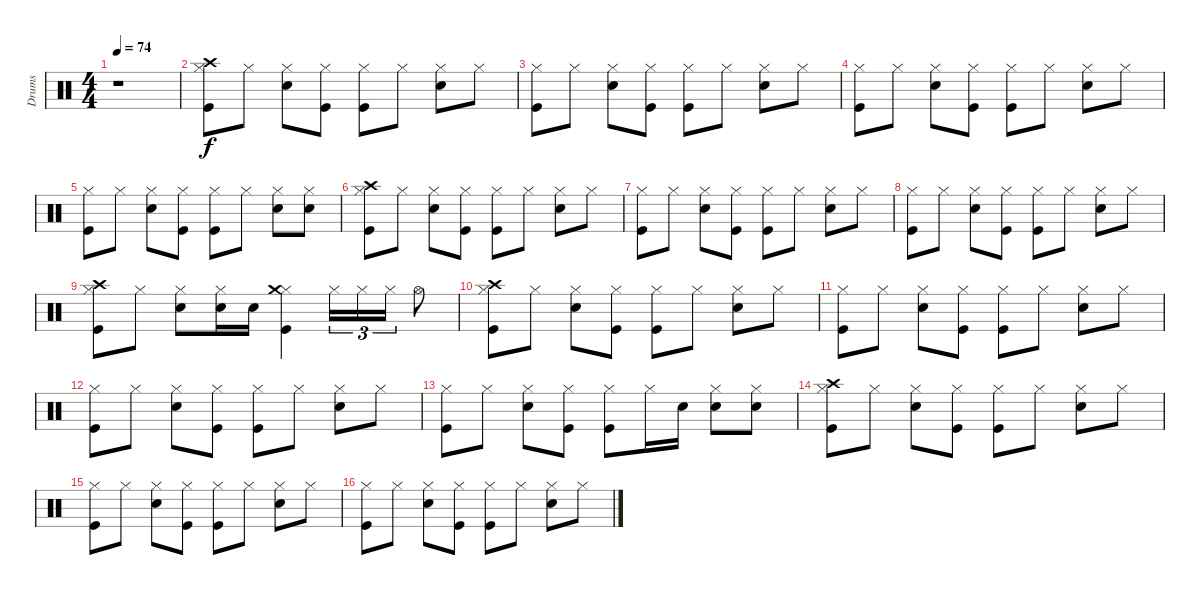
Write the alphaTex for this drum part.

\track ("Drums" "Drums") {instrument percussion}
\staff {score}
\articulation defaults
\ts (4 4)
\tempo 74
\clef neutral
\ks c
r.1{dy f} |
("Kick (hit)" "Hi-Hat (closed)" "Crash high (hit)").8 "Hi-Hat (closed)".8 ("Electric Snare (hit)" "Hi-Hat (closed)").8 ("Kick (hit)" "Hi-Hat (closed)").8 ("Kick (hit)" "Hi-Hat (closed)").8 "Hi-Hat (closed)".8 ("Electric Snare (hit)" "Hi-Hat (closed)").8 "Hi-Hat (closed)".8 |
("Kick (hit)" "Hi-Hat (closed)").8 "Hi-Hat (closed)".8 ("Electric Snare (hit)" "Hi-Hat (closed)").8 ("Kick (hit)" "Hi-Hat (closed)").8 ("Kick (hit)" "Hi-Hat (closed)").8 "Hi-Hat (closed)".8 ("Electric Snare (hit)" "Hi-Hat (closed)").8 "Hi-Hat (closed)".8 |
("Kick (hit)" "Hi-Hat (closed)").8 "Hi-Hat (closed)".8 ("Electric Snare (hit)" "Hi-Hat (closed)").8 ("Kick (hit)" "Hi-Hat (closed)").8 ("Kick (hit)" "Hi-Hat (closed)").8 "Hi-Hat (closed)".8 ("Electric Snare (hit)" "Hi-Hat (closed)").8 "Hi-Hat (closed)".8 |
("Kick (hit)" "Hi-Hat (closed)").8 "Hi-Hat (closed)".8 ("Electric Snare (hit)" "Hi-Hat (closed)").8 ("Kick (hit)" "Hi-Hat (closed)").8 ("Kick (hit)" "Hi-Hat (closed)").8 "Hi-Hat (closed)".8 ("Electric Snare (hit)" "Hi-Hat (closed)").8 ("Electric Snare (hit)" "Hi-Hat (closed)").8 |
("Kick (hit)" "Hi-Hat (closed)" "Crash high (hit)").8 "Hi-Hat (closed)".8 ("Electric Snare (hit)" "Hi-Hat (closed)").8 ("Kick (hit)" "Hi-Hat (closed)").8 ("Kick (hit)" "Hi-Hat (closed)").8 "Hi-Hat (closed)".8 ("Electric Snare (hit)" "Hi-Hat (closed)").8 "Hi-Hat (closed)".8 |
("Kick (hit)" "Hi-Hat (closed)").8 "Hi-Hat (closed)".8 ("Electric Snare (hit)" "Hi-Hat (closed)").8 ("Kick (hit)" "Hi-Hat (closed)").8 ("Kick (hit)" "Hi-Hat (closed)").8 "Hi-Hat (closed)".8 ("Electric Snare (hit)" "Hi-Hat (closed)").8 "Hi-Hat (closed)".8 |
("Kick (hit)" "Hi-Hat (closed)").8 "Hi-Hat (closed)".8 ("Electric Snare (hit)" "Hi-Hat (closed)").8 ("Kick (hit)" "Hi-Hat (closed)").8 ("Kick (hit)" "Hi-Hat (closed)").8 "Hi-Hat (closed)".8 ("Electric Snare (hit)" "Hi-Hat (closed)").8 "Hi-Hat (closed)".8 |
("Kick (hit)" "Hi-Hat (closed)" "Crash high (hit)").8 "Hi-Hat (closed)".8 ("Electric Snare (hit)" "Hi-Hat (closed)").8 ("Electric Snare (hit)" "Hi-Hat (closed)").16 "Electric Snare (hit)".16 ("Kick (hit)" "Hi-Hat (closed)" "Crash medium (hit)").4 "Hi-Hat (closed)".16{tu (3 2)} "Hi-Hat (closed)".16{tu (3 2)} "Hi-Hat (closed)".16{tu (3 2)} "Hi-Hat (open)".8 |
("Kick (hit)" "Hi-Hat (closed)" "Crash high (hit)").8 "Hi-Hat (closed)".8 ("Electric Snare (hit)" "Hi-Hat (closed)").8 ("Kick (hit)" "Hi-Hat (closed)").8 ("Kick (hit)" "Hi-Hat (closed)").8 "Hi-Hat (closed)".8 ("Electric Snare (hit)" "Hi-Hat (closed)").8 "Hi-Hat (closed)".8 |
("Kick (hit)" "Hi-Hat (closed)").8 "Hi-Hat (closed)".8 ("Electric Snare (hit)" "Hi-Hat (closed)").8 ("Kick (hit)" "Hi-Hat (closed)").8 ("Kick (hit)" "Hi-Hat (closed)").8 "Hi-Hat (closed)".8 ("Electric Snare (hit)" "Hi-Hat (closed)").8 "Hi-Hat (closed)".8 |
("Kick (hit)" "Hi-Hat (closed)").8 "Hi-Hat (closed)".8 ("Electric Snare (hit)" "Hi-Hat (closed)").8 ("Kick (hit)" "Hi-Hat (closed)").8 ("Kick (hit)" "Hi-Hat (closed)").8 "Hi-Hat (closed)".8 ("Electric Snare (hit)" "Hi-Hat (closed)").8 "Hi-Hat (closed)".8 |
("Kick (hit)" "Hi-Hat (closed)").8 "Hi-Hat (closed)".8 ("Electric Snare (hit)" "Hi-Hat (closed)").8 ("Kick (hit)" "Hi-Hat (closed)").8 ("Kick (hit)" "Hi-Hat (closed)").8 "Hi-Hat (closed)".16 "Electric Snare (hit)".16 ("Electric Snare (hit)" "Hi-Hat (closed)").8 ("Electric Snare (hit)" "Hi-Hat (closed)").8 |
("Kick (hit)" "Hi-Hat (closed)" "Crash high (hit)").8 "Hi-Hat (closed)".8 ("Electric Snare (hit)" "Hi-Hat (closed)").8 ("Kick (hit)" "Hi-Hat (closed)").8 ("Kick (hit)" "Hi-Hat (closed)").8 "Hi-Hat (closed)".8 ("Electric Snare (hit)" "Hi-Hat (closed)").8 "Hi-Hat (closed)".8 |
("Kick (hit)" "Hi-Hat (closed)").8 "Hi-Hat (closed)".8 ("Electric Snare (hit)" "Hi-Hat (closed)").8 ("Kick (hit)" "Hi-Hat (closed)").8 ("Kick (hit)" "Hi-Hat (closed)").8 "Hi-Hat (closed)".8 ("Electric Snare (hit)" "Hi-Hat (closed)").8 "Hi-Hat (closed)".8 |
("Kick (hit)" "Hi-Hat (closed)").8 "Hi-Hat (closed)".8 ("Electric Snare (hit)" "Hi-Hat (closed)").8 ("Kick (hit)" "Hi-Hat (closed)").8 ("Kick (hit)" "Hi-Hat (closed)").8 "Hi-Hat (closed)".8 ("Electric Snare (hit)" "Hi-Hat (closed)").8 "Hi-Hat (closed)".8
